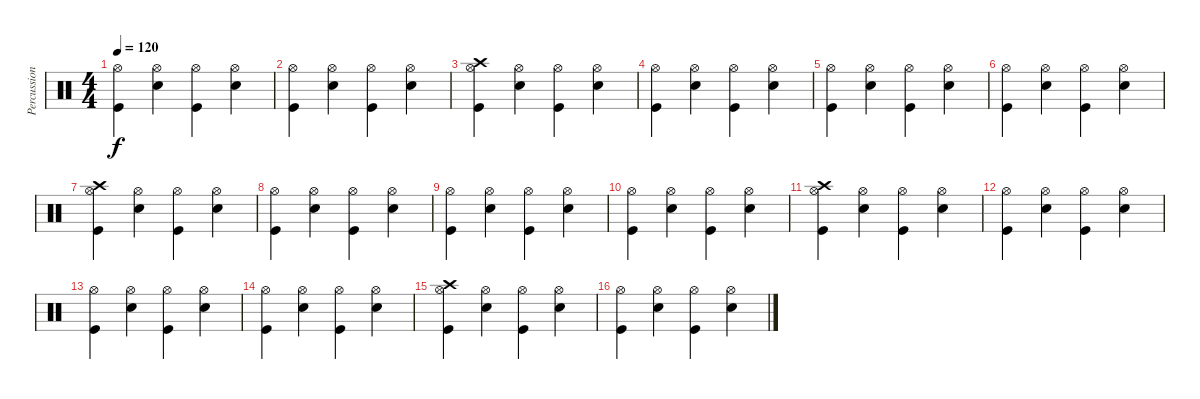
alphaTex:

\track ("Percussion" "Percussion") {instrument percussion}
\staff {score}
\articulation defaults
\ts (4 4)
\tempo 120
\clef neutral
\ks c
("Hi-Hat (open)" "Kick (hit)").4{dy f} ("Hi-Hat (open)" "Snare (hit) 2").4 ("Hi-Hat (open)" "Kick (hit)").4 ("Hi-Hat (open)" "Snare (hit) 2").4 |
("Hi-Hat (open)" "Kick (hit)").4 ("Hi-Hat (open)" "Snare (hit) 2").4 ("Hi-Hat (open)" "Kick (hit)").4 ("Hi-Hat (open)" "Snare (hit) 2").4 |
("Hi-Hat (open)" "Kick (hit)" "Crash high (hit)").4 ("Hi-Hat (open)" "Snare (hit) 2").4 ("Hi-Hat (open)" "Kick (hit)").4 ("Hi-Hat (open)" "Snare (hit) 2").4 |
("Hi-Hat (open)" "Kick (hit)").4 ("Hi-Hat (open)" "Snare (hit) 2").4 ("Hi-Hat (open)" "Kick (hit)").4 ("Hi-Hat (open)" "Snare (hit) 2").4 |
("Hi-Hat (open)" "Kick (hit)").4 ("Hi-Hat (open)" "Snare (hit) 2").4 ("Hi-Hat (open)" "Kick (hit)").4 ("Hi-Hat (open)" "Snare (hit) 2").4 |
("Hi-Hat (open)" "Kick (hit)").4 ("Hi-Hat (open)" "Snare (hit) 2").4 ("Hi-Hat (open)" "Kick (hit)").4 ("Hi-Hat (open)" "Snare (hit) 2").4 |
("Hi-Hat (open)" "Kick (hit)" "Crash high (hit)").4 ("Hi-Hat (open)" "Snare (hit) 2").4 ("Hi-Hat (open)" "Kick (hit)").4 ("Hi-Hat (open)" "Snare (hit) 2").4 |
("Hi-Hat (open)" "Kick (hit)").4 ("Hi-Hat (open)" "Snare (hit) 2").4 ("Hi-Hat (open)" "Kick (hit)").4 ("Hi-Hat (open)" "Snare (hit) 2").4 |
("Hi-Hat (open)" "Kick (hit)").4 ("Hi-Hat (open)" "Snare (hit) 2").4 ("Hi-Hat (open)" "Kick (hit)").4 ("Hi-Hat (open)" "Snare (hit) 2").4 |
("Hi-Hat (open)" "Kick (hit)").4 ("Hi-Hat (open)" "Snare (hit) 2").4 ("Hi-Hat (open)" "Kick (hit)").4 ("Hi-Hat (open)" "Snare (hit) 2").4 |
("Hi-Hat (open)" "Kick (hit)" "Crash high (hit)").4 ("Hi-Hat (open)" "Snare (hit) 2").4 ("Hi-Hat (open)" "Kick (hit)").4 ("Hi-Hat (open)" "Snare (hit) 2").4 |
("Hi-Hat (open)" "Kick (hit)").4 ("Hi-Hat (open)" "Snare (hit) 2").4 ("Hi-Hat (open)" "Kick (hit)").4 ("Hi-Hat (open)" "Snare (hit) 2").4 |
("Hi-Hat (open)" "Kick (hit)").4 ("Hi-Hat (open)" "Snare (hit) 2").4 ("Hi-Hat (open)" "Kick (hit)").4 ("Hi-Hat (open)" "Snare (hit) 2").4 |
("Hi-Hat (open)" "Kick (hit)").4 ("Hi-Hat (open)" "Snare (hit) 2").4 ("Hi-Hat (open)" "Kick (hit)").4 ("Hi-Hat (open)" "Snare (hit) 2").4 |
("Hi-Hat (open)" "Kick (hit)" "Crash high (hit)").4 ("Hi-Hat (open)" "Snare (hit) 2").4 ("Hi-Hat (open)" "Kick (hit)").4 ("Hi-Hat (open)" "Snare (hit) 2").4 |
("Hi-Hat (open)" "Kick (hit)").4 ("Hi-Hat (open)" "Snare (hit) 2").4 ("Hi-Hat (open)" "Kick (hit)").4 ("Hi-Hat (open)" "Snare (hit) 2").4
